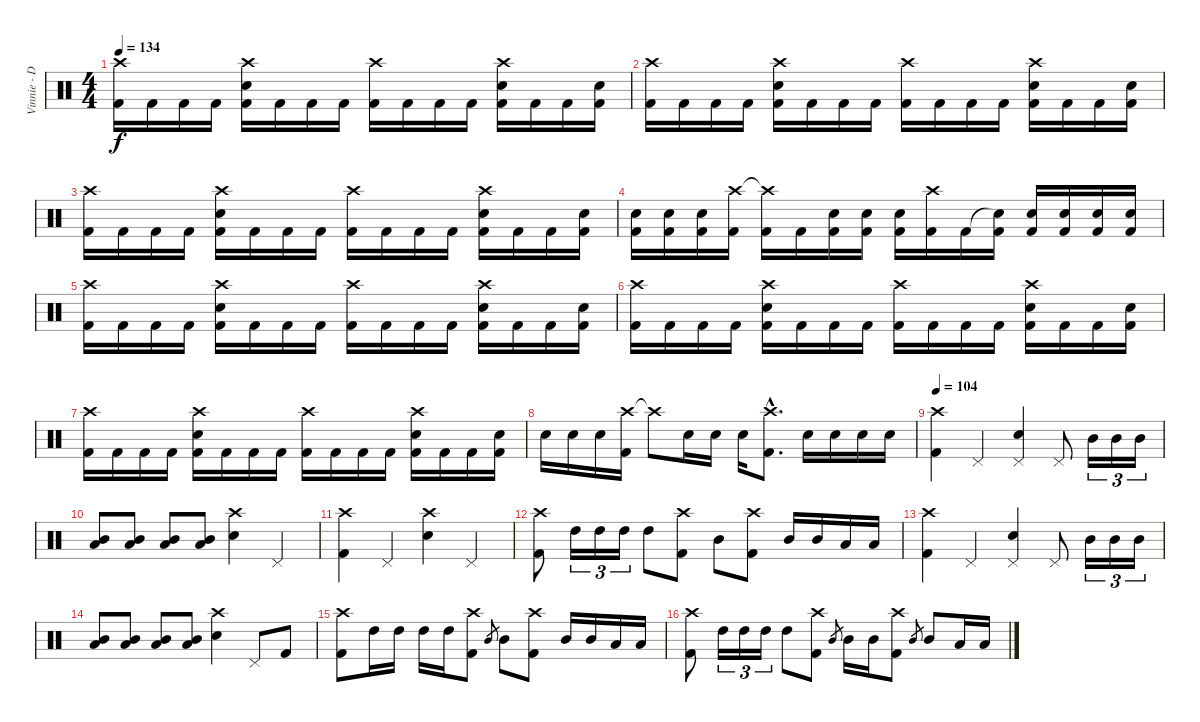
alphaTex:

\track ("Vinnie - Drums" "Vinnie - D") {instrument percussion}
\staff {score}
\articulation defaults
\ts (4 4)
\tempo 134
\clef neutral
\ks c
("Crash high (hit)" "Kick (hit) 2").16{dy f} "Kick (hit) 2".16 "Kick (hit) 2".16 "Kick (hit) 2".16 ("Crash high (hit)" "Electric Snare (hit)" "Kick (hit) 2").16 "Kick (hit) 2".16 "Kick (hit) 2".16 "Kick (hit) 2".16 ("Crash high (hit)" "Kick (hit) 2").16 "Kick (hit) 2".16 "Kick (hit) 2".16 "Kick (hit) 2".16 ("Crash high (hit)" "Electric Snare (hit)" "Kick (hit) 2").16 "Kick (hit) 2".16 "Kick (hit) 2".16 ("Electric Snare (hit)" "Kick (hit) 2").16 |
("Crash high (hit)" "Kick (hit) 2").16 "Kick (hit) 2".16 "Kick (hit) 2".16 "Kick (hit) 2".16 ("Crash high (hit)" "Electric Snare (hit)" "Kick (hit) 2").16 "Kick (hit) 2".16 "Kick (hit) 2".16 "Kick (hit) 2".16 ("Crash high (hit)" "Kick (hit) 2").16 "Kick (hit) 2".16 "Kick (hit) 2".16 "Kick (hit) 2".16 ("Crash high (hit)" "Electric Snare (hit)" "Kick (hit) 2").16 "Kick (hit) 2".16 "Kick (hit) 2".16 ("Electric Snare (hit)" "Kick (hit) 2").16 |
("Crash high (hit)" "Kick (hit) 2").16 "Kick (hit) 2".16 "Kick (hit) 2".16 "Kick (hit) 2".16 ("Crash high (hit)" "Electric Snare (hit)" "Kick (hit) 2").16 "Kick (hit) 2".16 "Kick (hit) 2".16 "Kick (hit) 2".16 ("Crash high (hit)" "Kick (hit) 2").16 "Kick (hit) 2".16 "Kick (hit) 2".16 "Kick (hit) 2".16 ("Crash high (hit)" "Electric Snare (hit)" "Kick (hit) 2").16 "Kick (hit) 2".16 "Kick (hit) 2".16 ("Electric Snare (hit)" "Kick (hit) 2").16 |
("Electric Snare (hit)" "Kick (hit) 2").16 ("Electric Snare (hit)" "Kick (hit) 2").16 ("Electric Snare (hit)" "Kick (hit) 2").16 ("Crash high (hit)" "Kick (hit) 2").16 ("Crash high (hit)"{t} "Kick (hit) 2").16 "Kick (hit) 2".16 ("Electric Snare (hit)" "Kick (hit) 2").16 ("Electric Snare (hit)" "Kick (hit) 2").16 ("Electric Snare (hit)" "Kick (hit) 2").16 ("Crash high (hit)" "Kick (hit) 2").16 "Kick (hit) 2".16 ("Snare (hit)"{t} "Kick (hit) 2").16 ("Electric Snare (hit)" "Kick (hit) 2").16 ("Electric Snare (hit)" "Kick (hit) 2").16 ("Electric Snare (hit)" "Kick (hit) 2").16 ("Electric Snare (hit)" "Kick (hit) 2").16 |
("Crash high (hit)" "Kick (hit) 2").16 "Kick (hit) 2".16 "Kick (hit) 2".16 "Kick (hit) 2".16 ("Crash high (hit)" "Electric Snare (hit)" "Kick (hit) 2").16 "Kick (hit) 2".16 "Kick (hit) 2".16 "Kick (hit) 2".16 ("Crash high (hit)" "Kick (hit) 2").16 "Kick (hit) 2".16 "Kick (hit) 2".16 "Kick (hit) 2".16 ("Crash high (hit)" "Electric Snare (hit)" "Kick (hit) 2").16 "Kick (hit) 2".16 "Kick (hit) 2".16 ("Electric Snare (hit)" "Kick (hit) 2").16 |
("Crash high (hit)" "Kick (hit) 2").16 "Kick (hit) 2".16 "Kick (hit) 2".16 "Kick (hit) 2".16 ("Crash high (hit)" "Electric Snare (hit)" "Kick (hit) 2").16 "Kick (hit) 2".16 "Kick (hit) 2".16 "Kick (hit) 2".16 ("Crash high (hit)" "Kick (hit) 2").16 "Kick (hit) 2".16 "Kick (hit) 2".16 "Kick (hit) 2".16 ("Crash high (hit)" "Electric Snare (hit)" "Kick (hit) 2").16 "Kick (hit) 2".16 "Kick (hit) 2".16 ("Electric Snare (hit)" "Kick (hit) 2").16 |
("Crash high (hit)" "Kick (hit) 2").16 "Kick (hit) 2".16 "Kick (hit) 2".16 "Kick (hit) 2".16 ("Crash high (hit)" "Electric Snare (hit)" "Kick (hit) 2").16 "Kick (hit) 2".16 "Kick (hit) 2".16 "Kick (hit) 2".16 ("Crash high (hit)" "Kick (hit) 2").16 "Kick (hit) 2".16 "Kick (hit) 2".16 "Kick (hit) 2".16 ("Crash high (hit)" "Electric Snare (hit)" "Kick (hit) 2").16 "Kick (hit) 2".16 "Kick (hit) 2".16 ("Electric Snare (hit)" "Kick (hit) 2").16 |
"Electric Snare (hit)".16 "Electric Snare (hit)".16 "Electric Snare (hit)".16 ("Crash high (hit)" "Kick (hit) 2").16 "Crash high (hit)"{t}.8 "Electric Snare (hit)".16 "Electric Snare (hit)".16 "Electric Snare (hit)".16 ("Crash high (hit)"{hac} "Kick (hit) 2"{hac}).8{d} "Electric Snare (hit)".16 "Electric Snare (hit)".16 "Electric Snare (hit)".16 "Electric Snare (hit)".16 |
\tempo 104
("Crash high (hit)" "Kick (hit) 2").4 "Pedal Hi-Hat (hit)".4 ("Pedal Hi-Hat (hit)" "Electric Snare (hit)").4 "Pedal Hi-Hat (hit)".8 "Mid Tom (hit)".16{tu (3 2)} "Mid Tom (hit)".16{tu (3 2)} "Mid Tom (hit)".16{tu (3 2)} |
("Mid Tom (hit)" "Low Tom (hit)").8 ("Mid Tom (hit)" "Low Tom (hit)").8 ("Mid Tom (hit)" "Low Tom (hit)").8 ("Mid Tom (hit)" "Low Tom (hit)").8 ("Crash high (hit)" "Electric Snare (hit)").4 "Pedal Hi-Hat (hit)".4 |
("Crash high (hit)" "Kick (hit) 2").4 "Pedal Hi-Hat (hit)".4 ("Crash high (hit)" "Electric Snare (hit)").4 "Pedal Hi-Hat (hit)".4 |
("Crash high (hit)" "Kick (hit) 2").8 "High Tom (hit)".16{tu (3 2)} "High Tom (hit)".16{tu (3 2)} "High Tom (hit)".16{tu (3 2)} "High Tom (hit)".8 ("Crash high (hit)" "Kick (hit) 2").8 "Mid Tom (hit)".8 ("Crash high (hit)" "Kick (hit) 2").8 "Mid Tom (hit)".16 "Mid Tom (hit)".16 "Low Tom (hit)".16 "Low Tom (hit)".16 |
("Crash high (hit)" "Kick (hit) 2").4 "Pedal Hi-Hat (hit)".4 ("Pedal Hi-Hat (hit)" "Electric Snare (hit)").4 "Pedal Hi-Hat (hit)".8 "Mid Tom (hit)".16{tu (3 2)} "Mid Tom (hit)".16{tu (3 2)} "Mid Tom (hit)".16{tu (3 2)} |
("Mid Tom (hit)" "Low Tom (hit)").8 ("Mid Tom (hit)" "Low Tom (hit)").8 ("Mid Tom (hit)" "Low Tom (hit)").8 ("Mid Tom (hit)" "Low Tom (hit)").8 ("Crash high (hit)" "Electric Snare (hit)").4 "Pedal Hi-Hat (hit)".8 "Kick (hit) 2".8 |
("Crash high (hit)" "Kick (hit) 2").8 "High Tom (hit)".16 "High Tom (hit)".16 "High Tom (hit)".16 "High Tom (hit)".16 ("Crash high (hit)" "Kick (hit) 2").8 "Mid Tom (hit)".8{gr} "Mid Tom (hit)".8 ("Crash high (hit)" "Kick (hit) 2").8 "Mid Tom (hit)".16 "Mid Tom (hit)".16 "Low Tom (hit)".16 "Low Tom (hit)".16 |
("Crash high (hit)" "Kick (hit) 2").8 "High Tom (hit)".16{tu (3 2)} "High Tom (hit)".16{tu (3 2)} "High Tom (hit)".16{tu (3 2)} "High Tom (hit)".8 ("Crash high (hit)" "Kick (hit) 2").8 "Mid Tom (hit)".8{gr} "Mid Tom (hit)".16 "Mid Tom (hit)".16 ("Crash high (hit)" "Kick (hit) 2").8 "Mid Tom (hit)".8{gr} "Mid Tom (hit)".8 "Low Tom (hit)".16 "Low Tom (hit)".16
